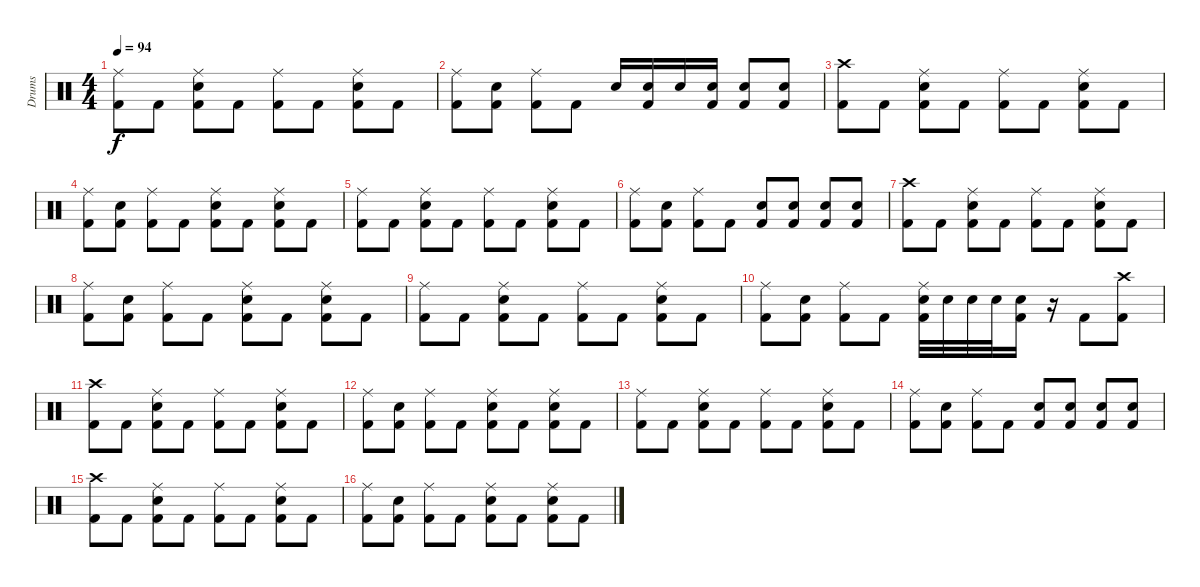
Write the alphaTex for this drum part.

\track ("Drums" "Drums") {instrument percussion}
\staff {score}
\articulation defaults
\ts (4 4)
\tempo 94
\clef neutral
\ks c
("Ride (middle)" "Kick (hit) 2").8{dy f} "Kick (hit) 2".8 ("Ride (middle)" "Snare (hit) 2" "Kick (hit) 2").8 "Kick (hit) 2".8 ("Ride (middle)" "Kick (hit) 2").8 "Kick (hit) 2".8 ("Ride (middle)" "Snare (hit) 2" "Kick (hit) 2").8 "Kick (hit) 2".8 |
("Ride (middle)" "Kick (hit) 2").8 ("Snare (hit) 2" "Kick (hit) 2").8 ("Ride (middle)" "Kick (hit) 2").8 "Kick (hit) 2".8 "Snare (hit) 2".16 ("Snare (hit) 2" "Kick (hit) 2").16 "Snare (hit) 2".16 ("Snare (hit) 2" "Kick (hit) 2").16 ("Snare (hit) 2" "Kick (hit) 2").8 ("Snare (hit) 2" "Kick (hit) 2").8 |
("Crash high (hit)" "Kick (hit) 2").8 "Kick (hit) 2".8 ("Ride (middle)" "Snare (hit) 2" "Kick (hit) 2").8 "Kick (hit) 2".8 ("Ride (middle)" "Kick (hit) 2").8 "Kick (hit) 2".8 ("Ride (middle)" "Snare (hit) 2" "Kick (hit) 2").8 "Kick (hit) 2".8 |
("Ride (middle)" "Kick (hit) 2").8 ("Snare (hit) 2" "Kick (hit) 2").8 ("Ride (middle)" "Kick (hit) 2").8 "Kick (hit) 2".8 ("Ride (middle)" "Snare (hit) 2" "Kick (hit) 2").8 "Kick (hit) 2".8 ("Ride (middle)" "Snare (hit) 2" "Kick (hit) 2").8 "Kick (hit) 2".8 |
("Ride (middle)" "Kick (hit) 2").8 "Kick (hit) 2".8 ("Ride (middle)" "Snare (hit) 2" "Kick (hit) 2").8 "Kick (hit) 2".8 ("Ride (middle)" "Kick (hit) 2").8 "Kick (hit) 2".8 ("Ride (middle)" "Snare (hit) 2" "Kick (hit) 2").8 "Kick (hit) 2".8 |
("Ride (middle)" "Kick (hit) 2").8 ("Snare (hit) 2" "Kick (hit) 2").8 ("Ride (middle)" "Kick (hit) 2").8 "Kick (hit) 2".8 ("Snare (hit) 2" "Kick (hit) 2").8 ("Snare (hit) 2" "Kick (hit) 2").8 ("Snare (hit) 2" "Kick (hit) 2").8 ("Snare (hit) 2" "Kick (hit) 2").8 |
("Crash high (hit)" "Kick (hit) 2").8 "Kick (hit) 2".8 ("Ride (middle)" "Snare (hit) 2" "Kick (hit) 2").8 "Kick (hit) 2".8 ("Ride (middle)" "Kick (hit) 2").8 "Kick (hit) 2".8 ("Ride (middle)" "Snare (hit) 2" "Kick (hit) 2").8 "Kick (hit) 2".8 |
("Ride (middle)" "Kick (hit) 2").8 ("Snare (hit) 2" "Kick (hit) 2").8 ("Ride (middle)" "Kick (hit) 2").8 "Kick (hit) 2".8 ("Ride (middle)" "Snare (hit) 2" "Kick (hit) 2").8 "Kick (hit) 2".8 ("Ride (middle)" "Snare (hit) 2" "Kick (hit) 2").8 "Kick (hit) 2".8 |
("Ride (middle)" "Kick (hit) 2").8 "Kick (hit) 2".8 ("Ride (middle)" "Snare (hit) 2" "Kick (hit) 2").8 "Kick (hit) 2".8 ("Ride (middle)" "Kick (hit) 2").8 "Kick (hit) 2".8 ("Ride (middle)" "Snare (hit) 2" "Kick (hit) 2").8 "Kick (hit) 2".8 |
("Ride (middle)" "Kick (hit) 2").8 ("Snare (hit) 2" "Kick (hit) 2").8 ("Ride (middle)" "Kick (hit) 2").8 "Kick (hit) 2".8 ("Ride (middle)" "Snare (hit) 2" "Kick (hit) 2").32 "Snare (hit) 2".32 "Snare (hit) 2".32 "Snare (hit) 2".32 ("Snare (hit) 2" "Kick (hit) 2").16 r.16 "Kick (hit) 2".8 ("Crash high (hit)" "Kick (hit) 2").8 |
("Crash high (hit)" "Kick (hit) 2").8 "Kick (hit) 2".8 ("Ride (middle)" "Snare (hit) 2" "Kick (hit) 2").8 "Kick (hit) 2".8 ("Ride (middle)" "Kick (hit) 2").8 "Kick (hit) 2".8 ("Ride (middle)" "Snare (hit) 2" "Kick (hit) 2").8 "Kick (hit) 2".8 |
("Ride (middle)" "Kick (hit) 2").8 ("Snare (hit) 2" "Kick (hit) 2").8 ("Ride (middle)" "Kick (hit) 2").8 "Kick (hit) 2".8 ("Ride (middle)" "Snare (hit) 2" "Kick (hit) 2").8 "Kick (hit) 2".8 ("Ride (middle)" "Snare (hit) 2" "Kick (hit) 2").8 "Kick (hit) 2".8 |
("Ride (middle)" "Kick (hit) 2").8 "Kick (hit) 2".8 ("Ride (middle)" "Snare (hit) 2" "Kick (hit) 2").8 "Kick (hit) 2".8 ("Ride (middle)" "Kick (hit) 2").8 "Kick (hit) 2".8 ("Ride (middle)" "Snare (hit) 2" "Kick (hit) 2").8 "Kick (hit) 2".8 |
("Ride (middle)" "Kick (hit) 2").8 ("Snare (hit) 2" "Kick (hit) 2").8 ("Ride (middle)" "Kick (hit) 2").8 "Kick (hit) 2".8 ("Snare (hit) 2" "Kick (hit) 2").8 ("Snare (hit) 2" "Kick (hit) 2").8 ("Snare (hit) 2" "Kick (hit) 2").8 ("Snare (hit) 2" "Kick (hit) 2").8 |
("Crash high (hit)" "Kick (hit) 2").8 "Kick (hit) 2".8 ("Ride (middle)" "Snare (hit) 2" "Kick (hit) 2").8 "Kick (hit) 2".8 ("Ride (middle)" "Kick (hit) 2").8 "Kick (hit) 2".8 ("Ride (middle)" "Snare (hit) 2" "Kick (hit) 2").8 "Kick (hit) 2".8 |
("Ride (middle)" "Kick (hit) 2").8 ("Snare (hit) 2" "Kick (hit) 2").8 ("Ride (middle)" "Kick (hit) 2").8 "Kick (hit) 2".8 ("Ride (middle)" "Snare (hit) 2" "Kick (hit) 2").8 "Kick (hit) 2".8 ("Ride (middle)" "Snare (hit) 2" "Kick (hit) 2").8 "Kick (hit) 2".8
